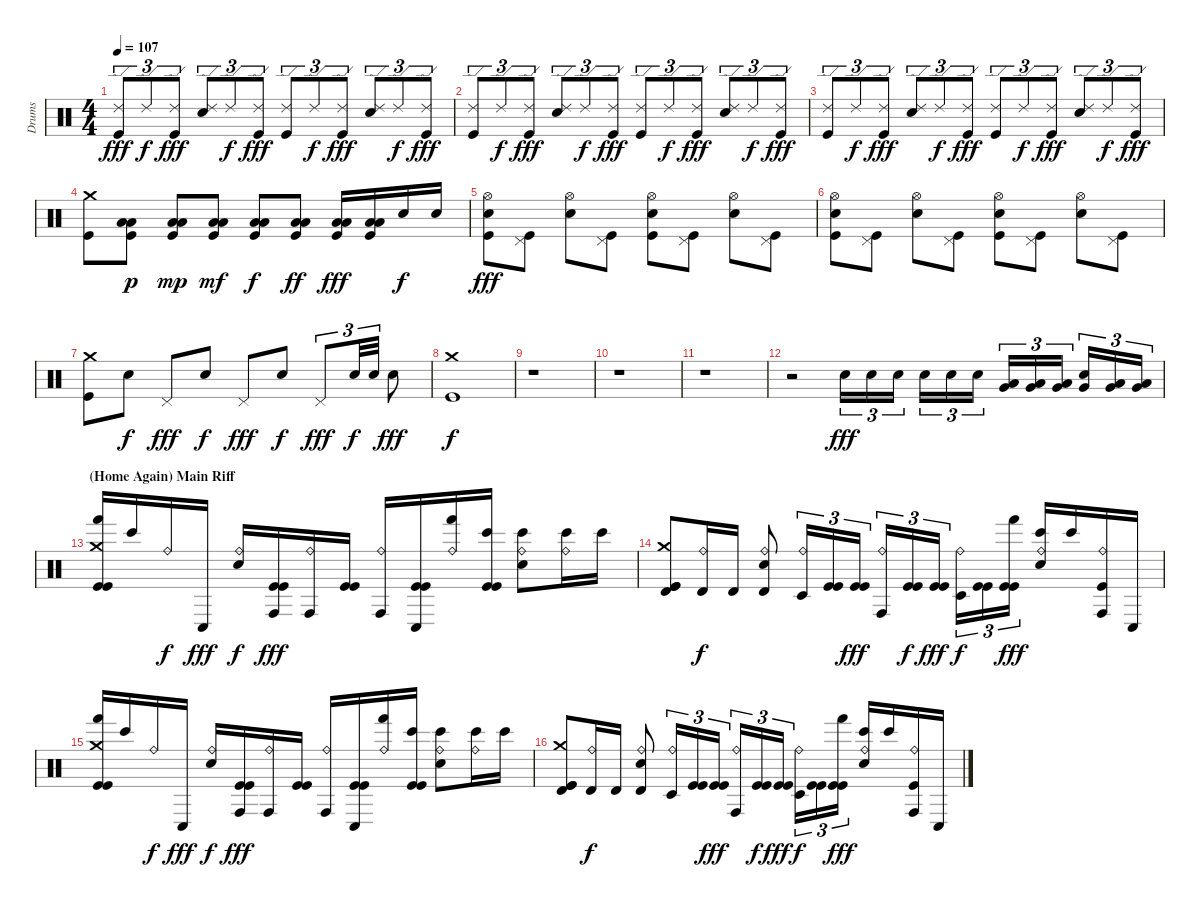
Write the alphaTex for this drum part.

\track ("Drums" "Drums") {instrument percussion}
\staff {score}
\articulation defaults
\ts (4 4)
\tempo 107
\clef neutral
\ks c
("Ride (edge) 2" "Kick (hit)").8{tu (3 2) dy fff} "Ride (edge) 2".8{tu (3 2) dy f} ("Ride (edge) 2" "Kick (hit)").8{tu (3 2) dy fff} ("Ride (edge) 2" "Electric Snare (hit)").8{tu (3 2)} "Ride (edge) 2".8{tu (3 2) dy f} ("Ride (edge) 2" "Kick (hit)").8{tu (3 2) dy fff} ("Ride (edge) 2" "Kick (hit)").8{tu (3 2)} "Ride (edge) 2".8{tu (3 2) dy f} ("Ride (edge) 2" "Kick (hit)").8{tu (3 2) dy fff} ("Ride (edge) 2" "Electric Snare (hit)").8{tu (3 2)} "Ride (edge) 2".8{tu (3 2) dy f} ("Ride (edge) 2" "Kick (hit)").8{tu (3 2) dy fff} |
("Ride (edge) 2" "Kick (hit)").8{tu (3 2)} "Ride (edge) 2".8{tu (3 2) dy f} ("Ride (edge) 2" "Kick (hit)").8{tu (3 2) dy fff} ("Ride (edge) 2" "Electric Snare (hit)").8{tu (3 2)} "Ride (edge) 2".8{tu (3 2) dy f} ("Ride (edge) 2" "Kick (hit)").8{tu (3 2) dy fff} ("Ride (edge) 2" "Kick (hit)").8{tu (3 2)} "Ride (edge) 2".8{tu (3 2) dy f} ("Ride (edge) 2" "Kick (hit)").8{tu (3 2) dy fff} ("Ride (edge) 2" "Electric Snare (hit)").8{tu (3 2)} "Ride (edge) 2".8{tu (3 2) dy f} ("Ride (edge) 2" "Kick (hit)").8{tu (3 2) dy fff} |
("Ride (edge) 2" "Kick (hit)").8{tu (3 2)} "Ride (edge) 2".8{tu (3 2) dy f} ("Ride (edge) 2" "Kick (hit)").8{tu (3 2) dy fff} ("Ride (edge) 2" "Electric Snare (hit)").8{tu (3 2)} "Ride (edge) 2".8{tu (3 2) dy f} ("Ride (edge) 2" "Kick (hit)").8{tu (3 2) dy fff} ("Ride (edge) 2" "Kick (hit)").8{tu (3 2)} "Ride (edge) 2".8{tu (3 2) dy f} ("Ride (edge) 2" "Kick (hit)").8{tu (3 2) dy fff} ("Ride (edge) 2" "Electric Snare (hit)").8{tu (3 2)} "Ride (edge) 2".8{tu (3 2) dy f} ("Ride (edge) 2" "Kick (hit)").8{tu (3 2) dy fff} |
("Crash medium (hit)" "Kick (hit)").8 ("Low Floor Tom (hit)" "Low Tom (hit)" "Kick (hit)").8{dy p} ("Low Floor Tom (hit)" "Low Tom (hit)" "Kick (hit)").8{dy mp} ("Low Floor Tom (hit)" "Low Tom (hit)" "Kick (hit)").8{dy mf} ("Low Floor Tom (hit)" "Low Tom (hit)" "Kick (hit)").8{dy f} ("Low Floor Tom (hit)" "Low Tom (hit)" "Kick (hit)").8{dy ff} ("Low Floor Tom (hit)" "Low Tom (hit)" "Kick (hit)").16{dy fff} ("Low Floor Tom (hit)" "Low Tom (hit)" "Kick (hit)").16 "Electric Snare (hit)".16{dy f} "Electric Snare (hit)".16 |
("Hi-Hat (open)" "Electric Snare (hit)" "Kick (hit)").8{dy fff} ("Pedal Hi-Hat (hit)" "Kick (hit)").8 ("Hi-Hat (open)" "Electric Snare (hit)").8 ("Pedal Hi-Hat (hit)" "Kick (hit)").8 ("Hi-Hat (open)" "Electric Snare (hit)" "Kick (hit)").8 ("Pedal Hi-Hat (hit)" "Kick (hit)").8 ("Hi-Hat (open)" "Electric Snare (hit)").8 ("Pedal Hi-Hat (hit)" "Kick (hit)").8 |
("Hi-Hat (open)" "Electric Snare (hit)" "Kick (hit)").8 ("Pedal Hi-Hat (hit)" "Kick (hit)").8 ("Hi-Hat (open)" "Electric Snare (hit)").8 ("Pedal Hi-Hat (hit)" "Kick (hit)").8 ("Hi-Hat (open)" "Electric Snare (hit)" "Kick (hit)").8 ("Pedal Hi-Hat (hit)" "Kick (hit)").8 ("Hi-Hat (open)" "Electric Snare (hit)").8 ("Pedal Hi-Hat (hit)" "Kick (hit)").8 |
("Crash medium (hit)" "Kick (hit)").8 "Electric Snare (hit)".8{dy f} "Pedal Hi-Hat (hit)".8{dy fff} "Electric Snare (hit)".8{dy f} "Pedal Hi-Hat (hit)".8{dy fff} "Electric Snare (hit)".8{dy f} "Pedal Hi-Hat (hit)".8{tu (3 2) dy fff} "Electric Snare (hit)".32{tu (3 2) dy f} "Electric Snare (hit)".32{tu (3 2)} "Electric Snare (hit)".8{dy fff} |
("Crash medium (hit)" "Kick (hit)").1{dy f} |
r.1 |
r.1 |
r.1 |
r.2 "Electric Snare (hit)".16{tu (3 2) dy fff} "Electric Snare (hit)".16{tu (3 2)} "Electric Snare (hit)".16{tu (3 2)} "Electric Snare (hit)".16{tu (3 2)} "Electric Snare (hit)".16{tu (3 2)} "Electric Snare (hit)".16{tu (3 2)} ("Low Tom (hit)" "Very Low Tom (hit)").16{tu (3 2)} ("Low Tom (hit)" "Very Low Tom (hit)").16{tu (3 2)} ("Low Tom (hit)" "Very Low Tom (hit)").16{tu (3 2)} ("Very Low Tom (hit)" "Snare (hit)").16{tu (3 2)} ("Very Low Tom (hit)" "Low Floor Tom (hit)").16{tu (3 2)} ("Very Low Tom (hit)" "Low Floor Tom (hit)").16{tu (3 2)} |
\section ("" "(Home Again) Main Riff")
("Crash medium (hit)" "Hand (hit)" "Kick (hit)" "Kick (hit)").16 "Bongo High (hit)".16 "Ride (bell)".16{dy f} "Conga low (hit)".16{dy fff} ("Ride (bell)" "Electric Snare (hit)").16{dy f} ("Conga high (hit)" "Kick (hit)" "Kick (hit)").16{dy fff} ("Ride (bell)" "Conga high (hit)").16 ("Kick (hit)" "Kick (hit)").16 ("Ride (bell)" "Conga high (hit)").16 ("Conga low (hit)" "Kick (hit)" "Kick (hit)").16 ("Ride (bell)" "Hand (hit)").16 ("Bongo High (hit)" "Kick (hit)" "Kick (hit)").16 ("Ride (bell)" "Bongo High (hit)" "Electric Snare (hit)").8 ("Ride (bell)" "Bongo High (hit)").16 "Bongo High (hit)".16 |
("Crash medium (hit)" "Timbale high (hit)" "Kick (hit)" "Kick (hit)").8 ("Ride (bell)" "Timbale high (hit)").16{dy f} "Timbale high (hit)".16 ("Ride (bell)" "Timbale high (hit)" "Electric Snare (hit)").8 ("Ride (bell)" "Timbale low (hit)").16{tu (3 2)} ("Kick (hit)" "Kick (hit)").16{tu (3 2)} ("Kick (hit)" "Kick (hit)").16{tu (3 2) dy fff} ("Ride (bell)" "Conga high (hit)").16{tu (3 2)} ("Kick (hit)" "Kick (hit)").16{tu (3 2) dy f} ("Kick (hit)" "Kick (hit)").16{tu (3 2) dy fff} ("Ride (bell)" "Timbale low (hit)").16{tu (3 2) dy f} ("Kick (hit)" "Kick (hit)").16{tu (3 2)} ("Hand (hit)" "Kick (hit)" "Kick (hit)").16{tu (3 2) dy fff} ("Ride (bell)" "Bongo High (hit)" "Electric Snare (hit)").16 "Bongo High (hit)".16 ("Ride (bell)" "Conga high (hit)" "Kick (hit)").16 "Conga low (hit)".16 |
("Crash medium (hit)" "Hand (hit)" "Kick (hit)" "Kick (hit)").16 "Bongo High (hit)".16 "Ride (bell)".16{dy f} "Conga low (hit)".16{dy fff} ("Ride (bell)" "Electric Snare (hit)").16{dy f} ("Conga high (hit)" "Kick (hit)" "Kick (hit)").16{dy fff} ("Ride (bell)" "Conga high (hit)").16 ("Kick (hit)" "Kick (hit)").16 ("Ride (bell)" "Conga high (hit)").16 ("Conga low (hit)" "Kick (hit)" "Kick (hit)").16 ("Ride (bell)" "Hand (hit)").16 ("Bongo High (hit)" "Kick (hit)" "Kick (hit)").16 ("Ride (bell)" "Bongo High (hit)" "Electric Snare (hit)").8 ("Ride (bell)" "Bongo High (hit)").16 "Bongo High (hit)".16 |
("Crash medium (hit)" "Timbale high (hit)" "Kick (hit)" "Kick (hit)").8 ("Ride (bell)" "Timbale high (hit)").16{dy f} "Timbale high (hit)".16 ("Ride (bell)" "Timbale high (hit)" "Electric Snare (hit)").8 ("Ride (bell)" "Timbale low (hit)").16{tu (3 2)} ("Kick (hit)" "Kick (hit)").16{tu (3 2)} ("Kick (hit)" "Kick (hit)").16{tu (3 2) dy fff} ("Ride (bell)" "Conga high (hit)").16{tu (3 2)} ("Kick (hit)" "Kick (hit)").16{tu (3 2) dy f} ("Kick (hit)" "Kick (hit)").16{tu (3 2) dy fff} ("Ride (bell)" "Timbale low (hit)").16{tu (3 2) dy f} ("Kick (hit)" "Kick (hit)").16{tu (3 2)} ("Hand (hit)" "Kick (hit)" "Kick (hit)").16{tu (3 2) dy fff} ("Ride (bell)" "Bongo High (hit)" "Electric Snare (hit)").16 "Bongo High (hit)".16 ("Ride (bell)" "Conga high (hit)" "Kick (hit)").16 "Conga low (hit)".16
